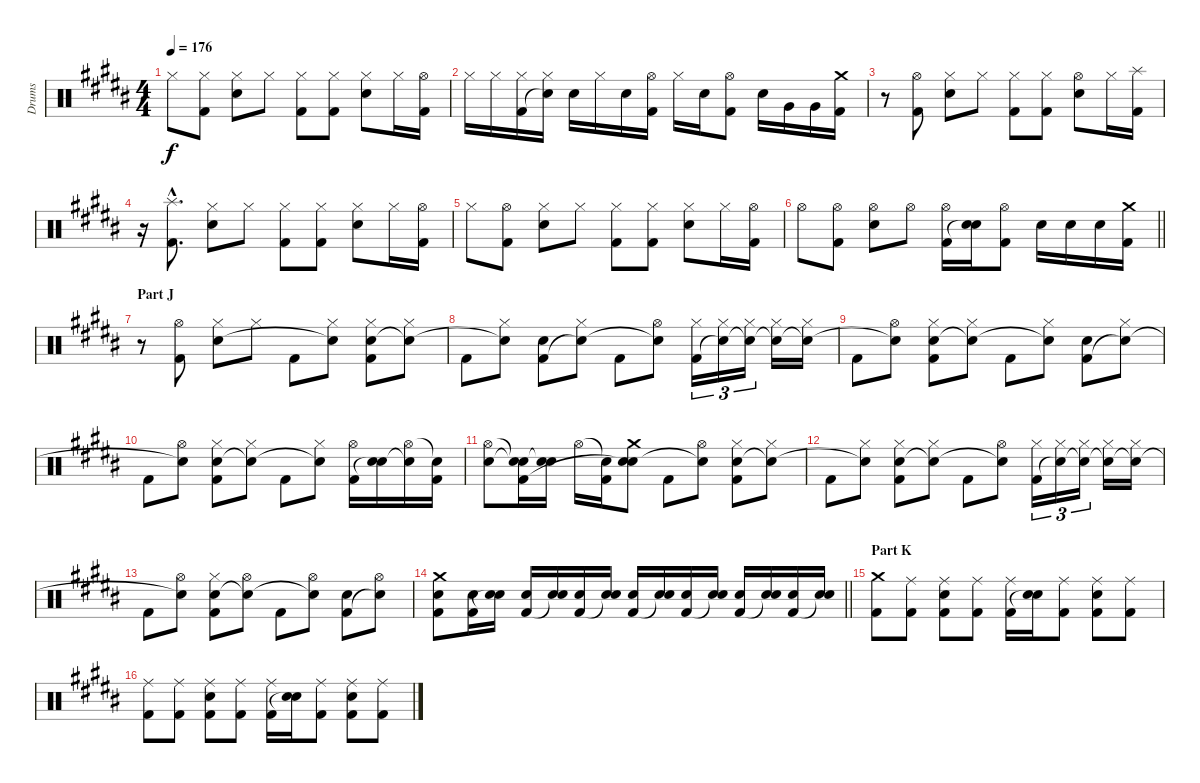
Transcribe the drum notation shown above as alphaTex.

\track ("Drums" "Drums") {instrument percussion}
\staff {score}
\articulation defaults
\ts (4 4)
\tempo 176
\clef neutral
\ks b "Hi-Hat (closed)".8{dy f}
("Hi-Hat (closed)" "Kick (hit) 2").8 ("Hi-Hat (closed)" "Electric Snare (hit)").8 "Hi-Hat (closed)".8 ("Hi-Hat (closed)" "Kick (hit) 2").8 ("Hi-Hat (closed)" "Kick (hit) 2").8 ("Hi-Hat (closed)" "Electric Snare (hit)").8 "Hi-Hat (closed)".16 ("Hi-Hat (open)" "Kick (hit) 2").16 |
"Hi-Hat (closed)".16 "Hi-Hat (closed)".16 ("Hi-Hat (closed)" "Kick (hit) 2").16 ("Hi-Hat (closed)" "Snare (hit)"{t}).16 "Electric Snare (hit)".16 "Hi-Hat (closed)".16 "Electric Snare (hit)".16 ("Hi-Hat (open)" "Kick (hit) 2").16 "Hi-Hat (closed)".16 "Electric Snare (hit)".16 ("Hi-Hat (open)" "Kick (hit) 2").8 "Electric Snare (hit)".16 "Very Low Tom (hit)".16 "Very Low Tom (hit)".16 ("Crash medium (hit)" "Kick (hit) 2").16 |
r.8 ("Hi-Hat (open)" "Kick (hit) 2").8 ("Hi-Hat (closed)" "Electric Snare (hit)").8 "Hi-Hat (closed)".8 ("Hi-Hat (closed)" "Kick (hit) 2").8 ("Hi-Hat (closed)" "Kick (hit) 2").8 ("Hi-Hat (open)" "Electric Snare (hit)").8 "Hi-Hat (closed)".16 ("Splash (hit)" "Kick (hit) 2").16 |
r.16 ("Splash (hit)"{hac} "Kick (hit) 2"{hac}).8{d} ("Hi-Hat (closed)" "Electric Snare (hit)").8 "Hi-Hat (closed)".8 ("Hi-Hat (closed)" "Kick (hit) 2").8 ("Hi-Hat (closed)" "Kick (hit) 2").8 ("Hi-Hat (closed)" "Electric Snare (hit)").8 "Hi-Hat (closed)".16 ("Hi-Hat (open)" "Kick (hit) 2").16 |
"Hi-Hat (closed)".8 ("Hi-Hat (open)" "Kick (hit) 2").8 ("Hi-Hat (closed)" "Electric Snare (hit)").8 "Hi-Hat (closed)".8 ("Hi-Hat (closed)" "Kick (hit) 2").8 ("Hi-Hat (closed)" "Kick (hit) 2").8 ("Hi-Hat (closed)" "Electric Snare (hit)").8 "Hi-Hat (closed)".16 ("Hi-Hat (open)" "Kick (hit) 2").16 |
\barLineRight lightlight "Hi-Hat (open)".8
("Hi-Hat (open)" "Kick (hit) 2").8 ("Hi-Hat (open)" "Electric Snare (hit)").8 "Hi-Hat (open)".8 ("Hi-Hat (open)" "Kick (hit) 2").16 ("Electric Snare (hit)" "Snare (hit)"{t}).16 ("Hi-Hat (open)" "Kick (hit) 2").8 "Electric Snare (hit)".16 "Electric Snare (hit)".16 "Electric Snare (hit)".16 ("Crash medium (hit)" "Kick (hit) 2").16 |
\section ("" "Part J")
r.8 ("Hi-Hat (open)" "Kick (hit) 2").8 ("Hi-Hat (closed)" "Electric Snare (hit)").8 "Hi-Hat (closed)".8 "Kick (hit) 2".8 ("Hi-Hat (closed)" "Snare (hit)"{t}).8 ("Hi-Hat (closed)" "Electric Snare (hit)" "Kick (hit) 2").8 ("Hi-Hat (closed)" "Snare (hit)"{t}).8 |
"Kick (hit) 2".8 ("Hi-Hat (closed)" "Snare (hit)"{t}).8 ("Electric Snare (hit)" "Kick (hit) 2").8 ("Hi-Hat (closed)" "Snare (hit)"{t}).8 "Kick (hit) 2".8 ("Hi-Hat (open)" "Snare (hit)"{t}).8 ("Hi-Hat (closed)" "Kick (hit) 2").16{tu (3 2)} ("Hi-Hat (closed)" "Snare (hit)"{t}).16{tu (3 2)} ("Hi-Hat (closed)" "Snare (hit)"{t}).16{tu (3 2)} ("Hi-Hat (closed)" "Snare (hit)"{t}).16 ("Hi-Hat (closed)" "Snare (hit)"{t}).16 |
"Kick (hit) 2".8 ("Hi-Hat (open)" "Snare (hit)"{t}).8 ("Hi-Hat (closed)" "Electric Snare (hit)" "Kick (hit) 2").8 ("Hi-Hat (closed)" "Snare (hit)"{t}).8 "Kick (hit) 2".8 ("Hi-Hat (closed)" "Snare (hit)"{t}).8 ("Electric Snare (hit)" "Kick (hit) 2").8 ("Hi-Hat (closed)" "Snare (hit)"{t}).8 |
"Kick (hit) 2".8 ("Hi-Hat (open)" "Snare (hit)"{t}).8 ("Hi-Hat (closed)" "Electric Snare (hit)" "Kick (hit) 2").8 ("Hi-Hat (closed)" "Snare (hit)"{t}).8 "Kick (hit) 2".8 ("Hi-Hat (closed)" "Snare (hit)"{t}).8 ("Hi-Hat (open)" "Kick (hit) 2").16 ("Electric Snare (hit)" "Snare (hit)"{t}).16 ("Hi-Hat (open)" "Snare (hit)"{t}).16 ("Snare (hit)"{t} "Kick (hit) 2").16 |
("Hi-Hat (open)" "Electric Snare (hit)").8 ("Snare (hit)"{t} "Snare (hit)"{t} "Kick (hit) 2").16 ("Electric Snare (hit)" "Snare (hit)"{t}).16 "Hi-Hat (open)".16 ("Snare (hit)"{t} "Kick (hit) 2").16 ("Crash medium (hit)" "Electric Snare (hit)" "Snare (hit)"{t}).8 "Kick (hit) 2".8 ("Hi-Hat (open)" "Snare (hit)"{t}).8 ("Hi-Hat (closed)" "Electric Snare (hit)" "Kick (hit) 2").8 ("Hi-Hat (closed)" "Snare (hit)"{t}).8 |
"Kick (hit) 2".8 ("Hi-Hat (closed)" "Snare (hit)"{t}).8 ("Hi-Hat (closed)" "Electric Snare (hit)" "Kick (hit) 2").8 ("Hi-Hat (closed)" "Snare (hit)"{t}).8 "Kick (hit) 2".8 ("Hi-Hat (open)" "Snare (hit)"{t}).8 ("Hi-Hat (closed)" "Kick (hit) 2").16{tu (3 2)} ("Hi-Hat (closed)" "Snare (hit)"{t}).16{tu (3 2)} ("Hi-Hat (closed)" "Snare (hit)"{t}).16{tu (3 2)} ("Hi-Hat (closed)" "Snare (hit)"{t}).16 ("Hi-Hat (closed)" "Snare (hit)"{t}).16 |
"Kick (hit) 2".8 ("Hi-Hat (open)" "Snare (hit)"{t}).8 ("Hi-Hat (closed)" "Electric Snare (hit)" "Kick (hit) 2").8 ("Hi-Hat (open)" "Snare (hit)"{t}).8 "Kick (hit) 2".8 ("Hi-Hat (open)" "Snare (hit)"{t}).8 ("Electric Snare (hit)" "Kick (hit) 2").8 ("Hi-Hat (open)" "Snare (hit)"{t}).8 |
\barLineRight lightlight
("Crash medium (hit)" "Electric Snare (hit)" "Kick (hit) 2").8 ("Electric Snare (hit)" "Kick (hit) 2").16 ("Electric Snare (hit)" "Snare (hit)"{t}).16 ("Electric Snare (hit)" "Kick (hit) 2").16 ("Electric Snare (hit)" "Snare (hit)"{t}).16 ("Electric Snare (hit)" "Kick (hit) 2").16 ("Electric Snare (hit)" "Snare (hit)"{t}).16 ("Electric Snare (hit)" "Kick (hit) 2").16 ("Electric Snare (hit)" "Snare (hit)"{t}).16 ("Electric Snare (hit)" "Kick (hit) 2").16 ("Electric Snare (hit)" "Snare (hit)"{t}).16 ("Electric Snare (hit)" "Kick (hit) 2").16 ("Electric Snare (hit)" "Snare (hit)"{t}).16 ("Electric Snare (hit)" "Kick (hit) 2").16 ("Electric Snare (hit)" "Snare (hit)"{t}).16 |
\section ("" "Part K")
("Crash medium (hit)" "Kick (hit) 2").8 ("Ride (middle)" "Kick (hit) 2").8 ("Ride (middle)" "Electric Snare (hit)" "Kick (hit) 2").8 ("Ride (middle)" "Kick (hit) 2").8 ("Ride (middle)" "Kick (hit) 2").16 ("Electric Snare (hit)" "Snare (hit)"{t}).16 ("Ride (middle)" "Kick (hit) 2").8 ("Ride (middle)" "Electric Snare (hit)" "Kick (hit) 2").8 ("Ride (middle)" "Kick (hit) 2").8 |
("Ride (middle)" "Kick (hit) 2").8 ("Ride (middle)" "Kick (hit) 2").8 ("Ride (middle)" "Electric Snare (hit)" "Kick (hit) 2").8 ("Ride (middle)" "Kick (hit) 2").8 ("Ride (middle)" "Kick (hit) 2").16 ("Electric Snare (hit)" "Snare (hit)"{t}).16 ("Ride (middle)" "Kick (hit) 2").8 ("Ride (middle)" "Electric Snare (hit)" "Kick (hit) 2").8 ("Ride (middle)" "Kick (hit) 2").8
